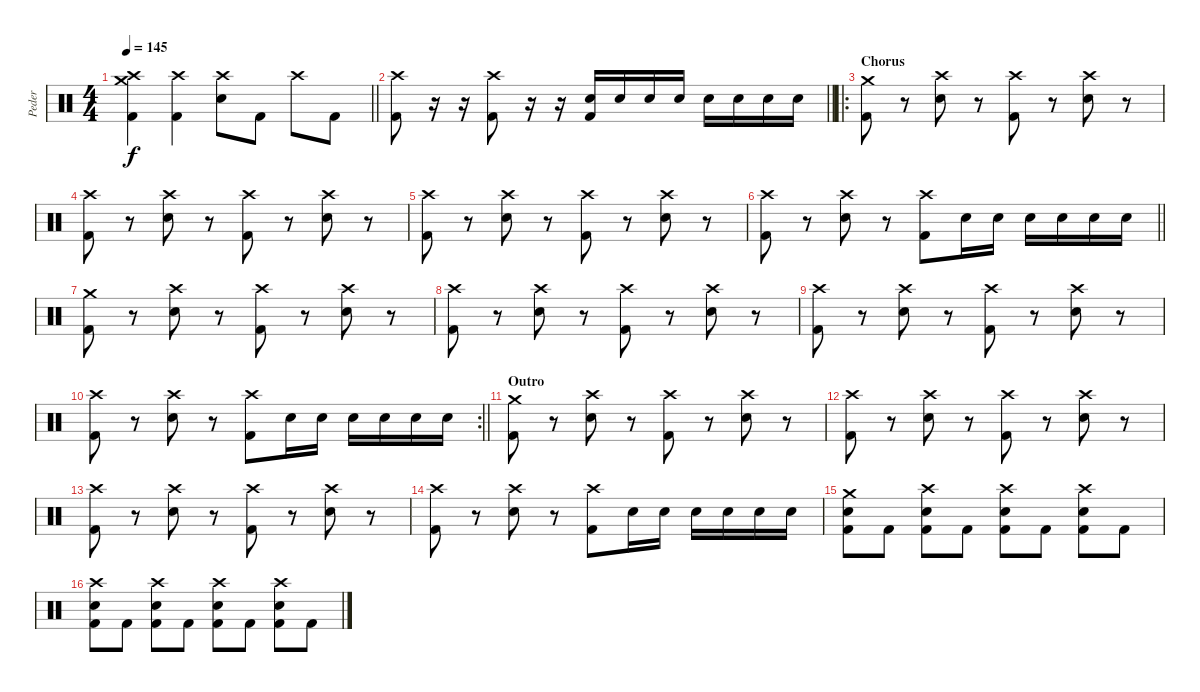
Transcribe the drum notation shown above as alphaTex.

\track ("Peder" "Peder") {instrument percussion}
\staff {score}
\articulation defaults
\ts (4 4)
\tempo 145
\clef neutral
\barLineRight lightlight
\ks c
("Crash medium (hit)" "Crash high (hit)" "Kick (hit) 2").4{dy f} ("Crash high (hit)" "Kick (hit) 2").4 ("Crash high (hit)" "Electric Snare (hit)").8 "Kick (hit) 2".8 "Crash high (hit)".8 "Kick (hit) 2".8 |
\barLineRight lightlight
("Crash high (hit)" "Kick (hit) 2").8 r.16 r.16 ("Crash high (hit)" "Kick (hit) 2").8 r.16 r.16 ("Electric Snare (hit)" "Kick (hit) 2").16 "Electric Snare (hit)".16 "Electric Snare (hit)".16 "Electric Snare (hit)".16 "Electric Snare (hit)".16 "Electric Snare (hit)".16 "Electric Snare (hit)".16 "Electric Snare (hit)".16 |
\ro
\section ("" "Chorus")
("Crash medium (hit)" "Kick (hit) 2").8 r.8 ("Crash high (hit)" "Electric Snare (hit)").8 r.8 ("Crash high (hit)" "Kick (hit) 2").8 r.8 ("Crash high (hit)" "Electric Snare (hit)").8 r.8 |
("Crash high (hit)" "Kick (hit) 2").8 r.8 ("Crash high (hit)" "Electric Snare (hit)").8 r.8 ("Crash high (hit)" "Kick (hit) 2").8 r.8 ("Crash high (hit)" "Electric Snare (hit)").8 r.8 |
("Crash high (hit)" "Kick (hit) 2").8 r.8 ("Crash high (hit)" "Electric Snare (hit)").8 r.8 ("Crash high (hit)" "Kick (hit) 2").8 r.8 ("Crash high (hit)" "Electric Snare (hit)").8 r.8 |
\barLineRight lightlight
("Crash high (hit)" "Kick (hit) 2").8 r.8 ("Crash high (hit)" "Electric Snare (hit)").8 r.8 ("Crash high (hit)" "Kick (hit) 2").8 "Electric Snare (hit)".16 "Electric Snare (hit)".16 "Electric Snare (hit)".16 "Electric Snare (hit)".16 "Electric Snare (hit)".16 "Electric Snare (hit)".16 |
("Crash medium (hit)" "Kick (hit) 2").8 r.8 ("Crash high (hit)" "Electric Snare (hit)").8 r.8 ("Crash high (hit)" "Kick (hit) 2").8 r.8 ("Crash high (hit)" "Electric Snare (hit)").8 r.8 |
("Crash high (hit)" "Kick (hit) 2").8 r.8 ("Crash high (hit)" "Electric Snare (hit)").8 r.8 ("Crash high (hit)" "Kick (hit) 2").8 r.8 ("Crash high (hit)" "Electric Snare (hit)").8 r.8 |
("Crash high (hit)" "Kick (hit) 2").8 r.8 ("Crash high (hit)" "Electric Snare (hit)").8 r.8 ("Crash high (hit)" "Kick (hit) 2").8 r.8 ("Crash high (hit)" "Electric Snare (hit)").8 r.8 |
\rc 2
\barLineRight lightlight
("Crash high (hit)" "Kick (hit) 2").8 r.8 ("Crash high (hit)" "Electric Snare (hit)").8 r.8 ("Crash high (hit)" "Kick (hit) 2").8 "Electric Snare (hit)".16 "Electric Snare (hit)".16 "Electric Snare (hit)".16 "Electric Snare (hit)".16 "Electric Snare (hit)".16 "Electric Snare (hit)".16 |
\section ("" "Outro")
("Crash medium (hit)" "Kick (hit) 2").8 r.8 ("Crash high (hit)" "Electric Snare (hit)").8 r.8 ("Crash high (hit)" "Kick (hit) 2").8 r.8 ("Crash high (hit)" "Electric Snare (hit)").8 r.8 |
("Crash high (hit)" "Kick (hit) 2").8 r.8 ("Crash high (hit)" "Electric Snare (hit)").8 r.8 ("Crash high (hit)" "Kick (hit) 2").8 r.8 ("Crash high (hit)" "Electric Snare (hit)").8 r.8 |
("Crash high (hit)" "Kick (hit) 2").8 r.8 ("Crash high (hit)" "Electric Snare (hit)").8 r.8 ("Crash high (hit)" "Kick (hit) 2").8 r.8 ("Crash high (hit)" "Electric Snare (hit)").8 r.8 |
("Crash high (hit)" "Kick (hit) 2").8 r.8 ("Crash high (hit)" "Electric Snare (hit)").8 r.8 ("Crash high (hit)" "Kick (hit) 2").8 "Electric Snare (hit)".16 "Electric Snare (hit)".16 "Electric Snare (hit)".16 "Electric Snare (hit)".16 "Electric Snare (hit)".16 "Electric Snare (hit)".16 |
("Crash medium (hit)" "Electric Snare (hit)" "Kick (hit) 2").8 "Kick (hit) 2".8 ("Crash high (hit)" "Electric Snare (hit)" "Kick (hit) 2").8 "Kick (hit) 2".8 ("Crash high (hit)" "Electric Snare (hit)" "Kick (hit) 2").8 "Kick (hit) 2".8 ("Crash high (hit)" "Electric Snare (hit)" "Kick (hit) 2").8 "Kick (hit) 2".8 |
("Crash high (hit)" "Electric Snare (hit)" "Kick (hit) 2").8 "Kick (hit) 2".8 ("Crash high (hit)" "Electric Snare (hit)" "Kick (hit) 2").8 "Kick (hit) 2".8 ("Crash high (hit)" "Electric Snare (hit)" "Kick (hit) 2").8 "Kick (hit) 2".8 ("Crash high (hit)" "Electric Snare (hit)" "Kick (hit) 2").8 "Kick (hit) 2".8
